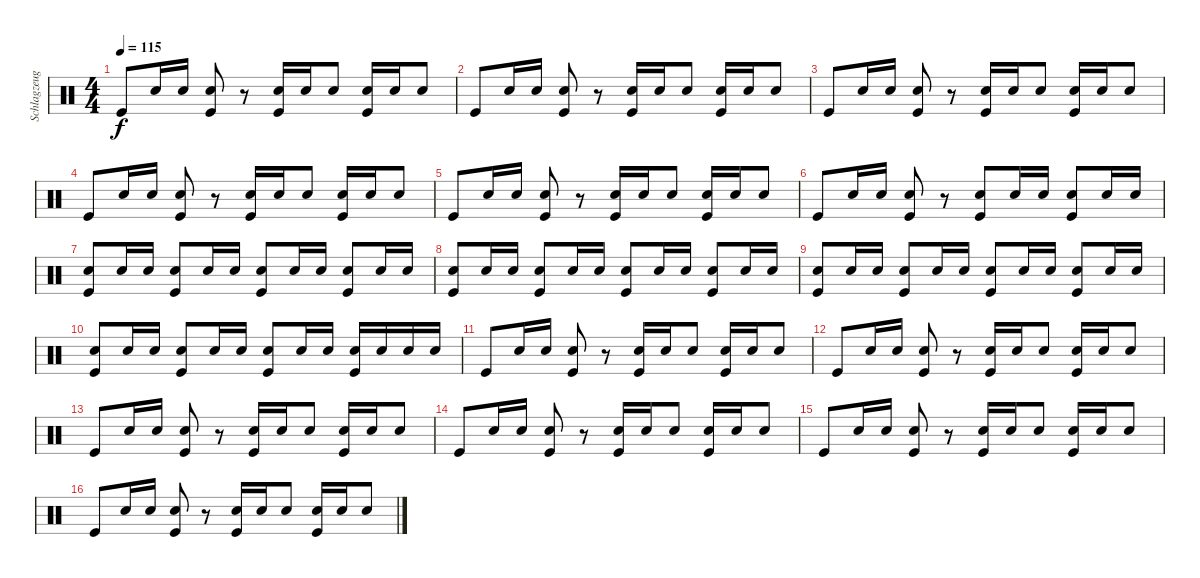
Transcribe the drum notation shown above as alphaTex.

\track ("Schlagzeug" "Schlagzeug") {instrument percussion}
\staff {score}
\articulation defaults
\ts (4 4)
\tempo 115
\clef neutral
\ks c "Kick (hit)".8{dy f} "Snare (hit) 2".16 "Snare (hit) 2".16
("Kick (hit)" "Snare (hit) 2").8 r.8 ("Kick (hit)" "Snare (hit) 2").16 "Snare (hit) 2".16 "Snare (hit) 2".8 ("Kick (hit)" "Snare (hit) 2").16 "Snare (hit) 2".16 "Snare (hit) 2".8 |
"Kick (hit)".8 "Snare (hit) 2".16 "Snare (hit) 2".16 ("Kick (hit)" "Snare (hit) 2").8 r.8 ("Kick (hit)" "Snare (hit) 2").16 "Snare (hit) 2".16 "Snare (hit) 2".8 ("Kick (hit)" "Snare (hit) 2").16 "Snare (hit) 2".16 "Snare (hit) 2".8 |
"Kick (hit)".8 "Snare (hit) 2".16 "Snare (hit) 2".16 ("Kick (hit)" "Snare (hit) 2").8 r.8 ("Kick (hit)" "Snare (hit) 2").16 "Snare (hit) 2".16 "Snare (hit) 2".8 ("Kick (hit)" "Snare (hit) 2").16 "Snare (hit) 2".16 "Snare (hit) 2".8 |
"Kick (hit)".8 "Snare (hit) 2".16 "Snare (hit) 2".16 ("Kick (hit)" "Snare (hit) 2").8 r.8 ("Kick (hit)" "Snare (hit) 2").16 "Snare (hit) 2".16 "Snare (hit) 2".8 ("Kick (hit)" "Snare (hit) 2").16 "Snare (hit) 2".16 "Snare (hit) 2".8 |
"Kick (hit)".8 "Snare (hit) 2".16 "Snare (hit) 2".16 ("Kick (hit)" "Snare (hit) 2").8 r.8 ("Kick (hit)" "Snare (hit) 2").16 "Snare (hit) 2".16 "Snare (hit) 2".8 ("Kick (hit)" "Snare (hit) 2").16 "Snare (hit) 2".16 "Snare (hit) 2".8 |
"Kick (hit)".8 "Snare (hit) 2".16 "Snare (hit) 2".16 ("Kick (hit)" "Snare (hit) 2").8 r.8 ("Kick (hit)" "Snare (hit) 2").8 "Snare (hit) 2".16 "Snare (hit) 2".16 ("Kick (hit)" "Snare (hit) 2").8 "Snare (hit) 2".16 "Snare (hit) 2".16 |
("Kick (hit)" "Snare (hit) 2").8 "Snare (hit) 2".16 "Snare (hit) 2".16 ("Kick (hit)" "Snare (hit) 2").8 "Snare (hit) 2".16 "Snare (hit) 2".16 ("Kick (hit)" "Snare (hit) 2").8 "Snare (hit) 2".16 "Snare (hit) 2".16 ("Kick (hit)" "Snare (hit) 2").8 "Snare (hit) 2".16 "Snare (hit) 2".16 |
("Kick (hit)" "Snare (hit) 2").8 "Snare (hit) 2".16 "Snare (hit) 2".16 ("Kick (hit)" "Snare (hit) 2").8 "Snare (hit) 2".16 "Snare (hit) 2".16 ("Kick (hit)" "Snare (hit) 2").8 "Snare (hit) 2".16 "Snare (hit) 2".16 ("Kick (hit)" "Snare (hit) 2").8 "Snare (hit) 2".16 "Snare (hit) 2".16 |
("Kick (hit)" "Snare (hit) 2").8 "Snare (hit) 2".16 "Snare (hit) 2".16 ("Kick (hit)" "Snare (hit) 2").8 "Snare (hit) 2".16 "Snare (hit) 2".16 ("Kick (hit)" "Snare (hit) 2").8 "Snare (hit) 2".16 "Snare (hit) 2".16 ("Kick (hit)" "Snare (hit) 2").8 "Snare (hit) 2".16 "Snare (hit) 2".16 |
("Kick (hit)" "Snare (hit) 2").8 "Snare (hit) 2".16 "Snare (hit) 2".16 ("Kick (hit)" "Snare (hit) 2").8 "Snare (hit) 2".16 "Snare (hit) 2".16 ("Kick (hit)" "Snare (hit) 2").8 "Snare (hit) 2".16 "Snare (hit) 2".16 ("Kick (hit)" "Snare (hit) 2").16 "Snare (hit) 2".16 "Snare (hit) 2".16 "Snare (hit) 2".16 |
"Kick (hit)".8 "Snare (hit) 2".16 "Snare (hit) 2".16 ("Kick (hit)" "Snare (hit) 2").8 r.8 ("Kick (hit)" "Snare (hit) 2").16 "Snare (hit) 2".16 "Snare (hit) 2".8 ("Kick (hit)" "Snare (hit) 2").16 "Snare (hit) 2".16 "Snare (hit) 2".8 |
"Kick (hit)".8 "Snare (hit) 2".16 "Snare (hit) 2".16 ("Kick (hit)" "Snare (hit) 2").8 r.8 ("Kick (hit)" "Snare (hit) 2").16 "Snare (hit) 2".16 "Snare (hit) 2".8 ("Kick (hit)" "Snare (hit) 2").16 "Snare (hit) 2".16 "Snare (hit) 2".8 |
"Kick (hit)".8 "Snare (hit) 2".16 "Snare (hit) 2".16 ("Kick (hit)" "Snare (hit) 2").8 r.8 ("Kick (hit)" "Snare (hit) 2").16 "Snare (hit) 2".16 "Snare (hit) 2".8 ("Kick (hit)" "Snare (hit) 2").16 "Snare (hit) 2".16 "Snare (hit) 2".8 |
"Kick (hit)".8 "Snare (hit) 2".16 "Snare (hit) 2".16 ("Kick (hit)" "Snare (hit) 2").8 r.8 ("Kick (hit)" "Snare (hit) 2").16 "Snare (hit) 2".16 "Snare (hit) 2".8 ("Kick (hit)" "Snare (hit) 2").16 "Snare (hit) 2".16 "Snare (hit) 2".8 |
"Kick (hit)".8 "Snare (hit) 2".16 "Snare (hit) 2".16 ("Kick (hit)" "Snare (hit) 2").8 r.8 ("Kick (hit)" "Snare (hit) 2").16 "Snare (hit) 2".16 "Snare (hit) 2".8 ("Kick (hit)" "Snare (hit) 2").16 "Snare (hit) 2".16 "Snare (hit) 2".8 |
"Kick (hit)".8 "Snare (hit) 2".16 "Snare (hit) 2".16 ("Kick (hit)" "Snare (hit) 2").8 r.8 ("Kick (hit)" "Snare (hit) 2").16 "Snare (hit) 2".16 "Snare (hit) 2".8 ("Kick (hit)" "Snare (hit) 2").16 "Snare (hit) 2".16 "Snare (hit) 2".8
